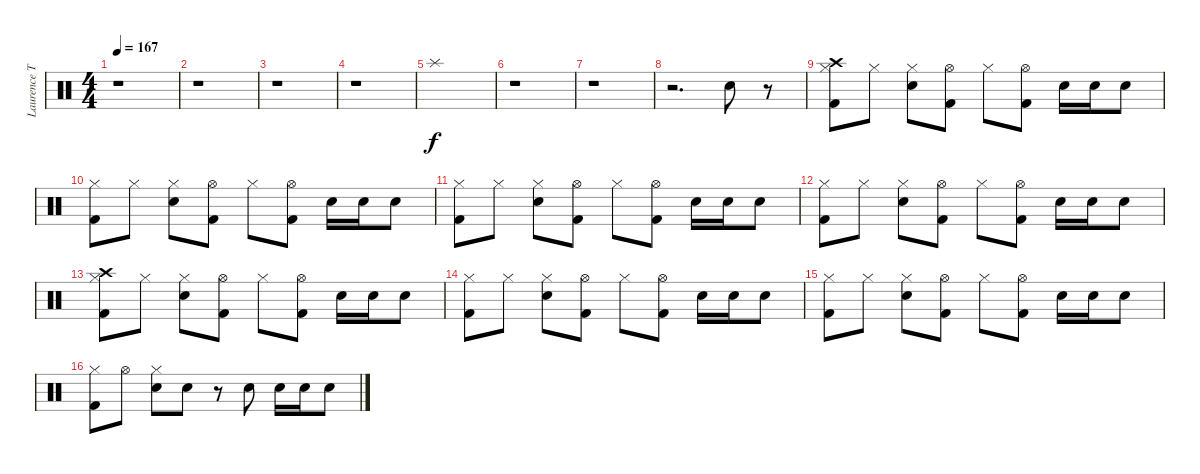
\track ("Laurence Tolhurst" "Laurence T") {instrument percussion}
\staff {score}
\articulation defaults
\ts (4 4)
\tempo 167
\clef neutral
\ks c
r.1{dy f} |
r.1 |
r.1 |
r.1 |
"Splash (hit)".1 |
r.1 |
r.1 |
r.2{d} "Snare (hit) 2".8 r.8 |
("Kick (hit) 2" "Hi-Hat (closed)" "Crash high (hit)").8 "Hi-Hat (closed)".8 ("Hi-Hat (closed)" "Snare (hit) 2").8 ("Kick (hit) 2" "Hi-Hat (open)").8 "Hi-Hat (closed)".8 ("Hi-Hat (open)" "Kick (hit) 2").8 "Snare (hit) 2".16 "Snare (hit) 2".16 "Snare (hit) 2".8 |
("Kick (hit) 2" "Hi-Hat (closed)").8 "Hi-Hat (closed)".8 ("Hi-Hat (closed)" "Snare (hit) 2").8 ("Kick (hit) 2" "Hi-Hat (open)").8 "Hi-Hat (closed)".8 ("Hi-Hat (open)" "Kick (hit) 2").8 "Snare (hit) 2".16 "Snare (hit) 2".16 "Snare (hit) 2".8 |
("Kick (hit) 2" "Hi-Hat (closed)").8 "Hi-Hat (closed)".8 ("Hi-Hat (closed)" "Snare (hit) 2").8 ("Kick (hit) 2" "Hi-Hat (open)").8 "Hi-Hat (closed)".8 ("Hi-Hat (open)" "Kick (hit) 2").8 "Snare (hit) 2".16 "Snare (hit) 2".16 "Snare (hit) 2".8 |
("Kick (hit) 2" "Hi-Hat (closed)").8 "Hi-Hat (closed)".8 ("Hi-Hat (closed)" "Snare (hit) 2").8 ("Kick (hit) 2" "Hi-Hat (open)").8 "Hi-Hat (closed)".8 ("Hi-Hat (open)" "Kick (hit) 2").8 "Snare (hit) 2".16 "Snare (hit) 2".16 "Snare (hit) 2".8 |
("Kick (hit) 2" "Hi-Hat (closed)" "Crash high (hit)").8 "Hi-Hat (closed)".8 ("Hi-Hat (closed)" "Snare (hit) 2").8 ("Kick (hit) 2" "Hi-Hat (open)").8 "Hi-Hat (closed)".8 ("Hi-Hat (open)" "Kick (hit) 2").8 "Snare (hit) 2".16 "Snare (hit) 2".16 "Snare (hit) 2".8 |
("Kick (hit) 2" "Hi-Hat (closed)").8 "Hi-Hat (closed)".8 ("Hi-Hat (closed)" "Snare (hit) 2").8 ("Kick (hit) 2" "Hi-Hat (open)").8 "Hi-Hat (closed)".8 ("Hi-Hat (open)" "Kick (hit) 2").8 "Snare (hit) 2".16 "Snare (hit) 2".16 "Snare (hit) 2".8 |
("Kick (hit) 2" "Hi-Hat (closed)").8 "Hi-Hat (closed)".8 ("Hi-Hat (closed)" "Snare (hit) 2").8 ("Kick (hit) 2" "Hi-Hat (open)").8 "Hi-Hat (closed)".8 ("Hi-Hat (open)" "Kick (hit) 2").8 "Snare (hit) 2".16 "Snare (hit) 2".16 "Snare (hit) 2".8 |
("Hi-Hat (closed)" "Kick (hit) 2").8 "Hi-Hat (open)".8 ("Hi-Hat (closed)" "Snare (hit) 2").8 "Snare (hit) 2".8 r.8 "Snare (hit) 2".8 "Snare (hit) 2".16 "Snare (hit) 2".16 "Snare (hit) 2".8
